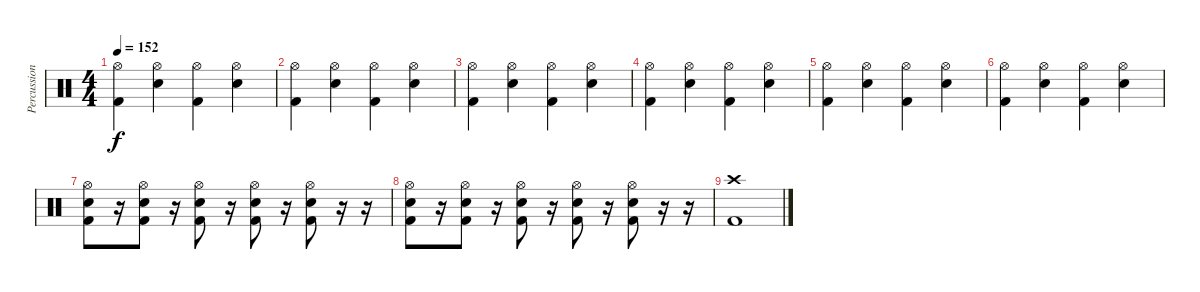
\track ("Percussion" "Percussion") {instrument percussion}
\staff {score}
\articulation defaults
\ts (4 4)
\tempo 152
\clef neutral
\ks c
("Hi-Hat (open)" "Kick (hit) 2").4{dy f} ("Hi-Hat (open)" "Electric Snare (hit)").4 ("Hi-Hat (open)" "Kick (hit) 2").4 ("Hi-Hat (open)" "Electric Snare (hit)").4 |
("Hi-Hat (open)" "Kick (hit) 2").4 ("Hi-Hat (open)" "Electric Snare (hit)").4 ("Hi-Hat (open)" "Kick (hit) 2").4 ("Hi-Hat (open)" "Electric Snare (hit)").4 |
("Hi-Hat (open)" "Kick (hit) 2").4 ("Hi-Hat (open)" "Electric Snare (hit)").4 ("Hi-Hat (open)" "Kick (hit) 2").4 ("Hi-Hat (open)" "Electric Snare (hit)").4 |
("Hi-Hat (open)" "Kick (hit) 2").4 ("Hi-Hat (open)" "Electric Snare (hit)").4 ("Hi-Hat (open)" "Kick (hit) 2").4 ("Hi-Hat (open)" "Electric Snare (hit)").4 |
("Hi-Hat (open)" "Kick (hit) 2").4 ("Hi-Hat (open)" "Electric Snare (hit)").4 ("Hi-Hat (open)" "Kick (hit) 2").4 ("Hi-Hat (open)" "Electric Snare (hit)").4 |
("Hi-Hat (open)" "Kick (hit) 2").4 ("Hi-Hat (open)" "Electric Snare (hit)").4 ("Hi-Hat (open)" "Kick (hit) 2").4 ("Hi-Hat (open)" "Electric Snare (hit)").4 |
("Hi-Hat (open)" "Electric Snare (hit)" "Kick (hit) 2").8 r.16 ("Hi-Hat (open)" "Electric Snare (hit)" "Kick (hit) 2").8 r.16 ("Hi-Hat (open)" "Electric Snare (hit)" "Kick (hit) 2").8 r.16 ("Hi-Hat (open)" "Electric Snare (hit)" "Kick (hit) 2").8 r.16 ("Hi-Hat (open)" "Electric Snare (hit)" "Kick (hit) 2").8 r.16 r.16 |
("Hi-Hat (open)" "Electric Snare (hit)" "Kick (hit) 2").8 r.16 ("Hi-Hat (open)" "Electric Snare (hit)" "Kick (hit) 2").8 r.16 ("Hi-Hat (open)" "Electric Snare (hit)" "Kick (hit) 2").8 r.16 ("Hi-Hat (open)" "Electric Snare (hit)" "Kick (hit) 2").8 r.16 ("Hi-Hat (open)" "Electric Snare (hit)" "Kick (hit) 2").8 r.16 r.16 |
("Crash high (hit)" "Kick (hit) 2").1
